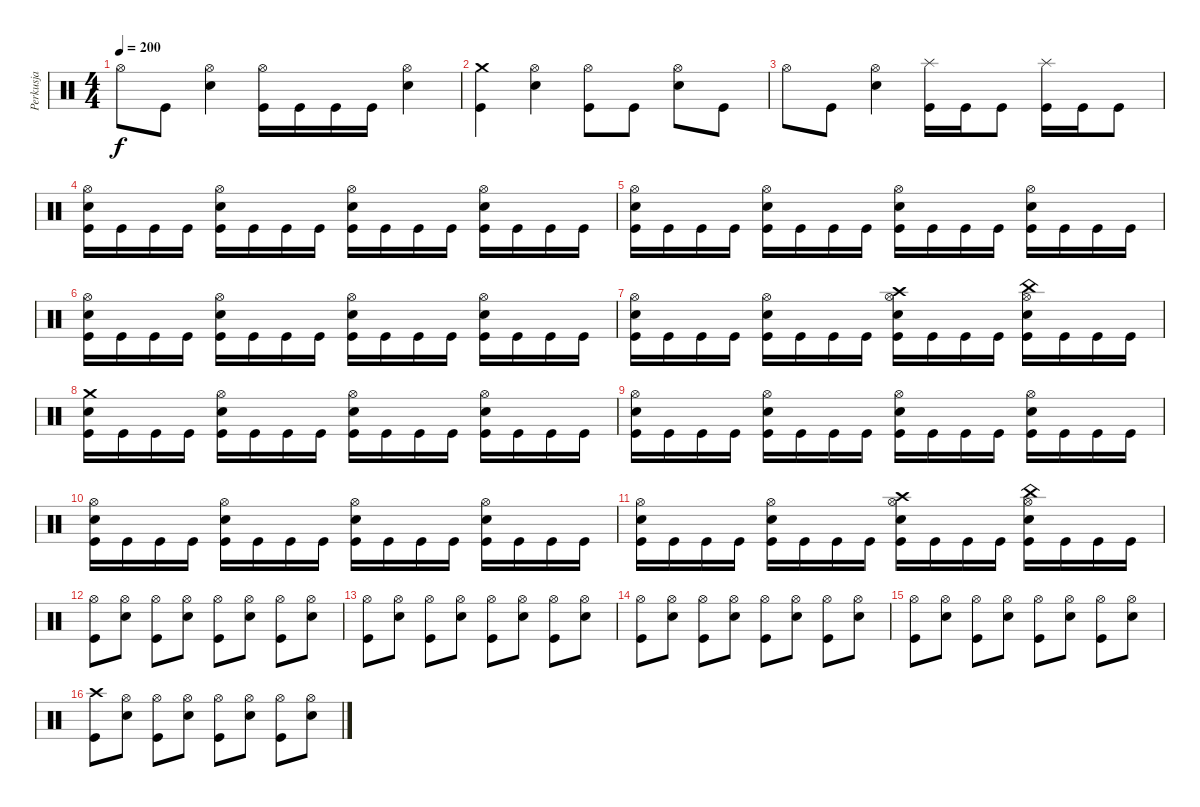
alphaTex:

\track ("Perkusja" "Perkusja") {instrument percussion}
\staff {score}
\articulation defaults
\ts (4 4)
\tempo 200
\clef neutral
\ks c "Hi-Hat (open)".8{dy f} "Kick (hit)".8
("Hi-Hat (open)" "Electric Snare (hit)").4 ("Hi-Hat (open)" "Kick (hit)").16 "Kick (hit)".16 "Kick (hit)".16 "Kick (hit)".16 ("Hi-Hat (open)" "Electric Snare (hit)").4 |
("Crash medium (hit)" "Kick (hit)").4 ("Hi-Hat (open)" "Electric Snare (hit)").4 ("Hi-Hat (open)" "Kick (hit)").8 "Kick (hit)".8 ("Hi-Hat (open)" "Electric Snare (hit)").8 "Kick (hit)".8 |
"Hi-Hat (open)".8 "Kick (hit)".8 ("Hi-Hat (open)" "Electric Snare (hit)").4 ("Splash (hit)" "Kick (hit)").16 "Kick (hit)".16 "Kick (hit)".8 ("Splash (hit)" "Kick (hit)").16 "Kick (hit)".16 "Kick (hit)".8 |
("Hi-Hat (open)" "Electric Snare (hit)" "Kick (hit)").16 "Kick (hit)".16 "Kick (hit)".16 "Kick (hit)".16 ("Hi-Hat (open)" "Electric Snare (hit)" "Kick (hit)").16 "Kick (hit)".16 "Kick (hit)".16 "Kick (hit)".16 ("Hi-Hat (open)" "Electric Snare (hit)" "Kick (hit)").16 "Kick (hit)".16 "Kick (hit)".16 "Kick (hit)".16 ("Hi-Hat (open)" "Electric Snare (hit)" "Kick (hit)").16 "Kick (hit)".16 "Kick (hit)".16 "Kick (hit)".16 |
("Hi-Hat (open)" "Electric Snare (hit)" "Kick (hit)").16 "Kick (hit)".16 "Kick (hit)".16 "Kick (hit)".16 ("Hi-Hat (open)" "Electric Snare (hit)" "Kick (hit)").16 "Kick (hit)".16 "Kick (hit)".16 "Kick (hit)".16 ("Hi-Hat (open)" "Electric Snare (hit)" "Kick (hit)").16 "Kick (hit)".16 "Kick (hit)".16 "Kick (hit)".16 ("Hi-Hat (open)" "Electric Snare (hit)" "Kick (hit)").16 "Kick (hit)".16 "Kick (hit)".16 "Kick (hit)".16 |
("Hi-Hat (open)" "Electric Snare (hit)" "Kick (hit)").16 "Kick (hit)".16 "Kick (hit)".16 "Kick (hit)".16 ("Hi-Hat (open)" "Electric Snare (hit)" "Kick (hit)").16 "Kick (hit)".16 "Kick (hit)".16 "Kick (hit)".16 ("Hi-Hat (open)" "Electric Snare (hit)" "Kick (hit)").16 "Kick (hit)".16 "Kick (hit)".16 "Kick (hit)".16 ("Hi-Hat (open)" "Electric Snare (hit)" "Kick (hit)").16 "Kick (hit)".16 "Kick (hit)".16 "Kick (hit)".16 |
("Hi-Hat (open)" "Electric Snare (hit)" "Kick (hit)").16 "Kick (hit)".16 "Kick (hit)".16 "Kick (hit)".16 ("Hi-Hat (open)" "Electric Snare (hit)" "Kick (hit)").16 "Kick (hit)".16 "Kick (hit)".16 "Kick (hit)".16 ("Crash high (hit)" "Hi-Hat (open)" "Electric Snare (hit)" "Kick (hit)").16 "Kick (hit)".16 "Kick (hit)".16 "Kick (hit)".16 ("China (hit)" "Hi-Hat (open)" "Electric Snare (hit)" "Kick (hit)").16 "Kick (hit)".16 "Kick (hit)".16 "Kick (hit)".16 |
("Crash medium (hit)" "Electric Snare (hit)" "Kick (hit)").16 "Kick (hit)".16 "Kick (hit)".16 "Kick (hit)".16 ("Hi-Hat (open)" "Electric Snare (hit)" "Kick (hit)").16 "Kick (hit)".16 "Kick (hit)".16 "Kick (hit)".16 ("Hi-Hat (open)" "Electric Snare (hit)" "Kick (hit)").16 "Kick (hit)".16 "Kick (hit)".16 "Kick (hit)".16 ("Hi-Hat (open)" "Electric Snare (hit)" "Kick (hit)").16 "Kick (hit)".16 "Kick (hit)".16 "Kick (hit)".16 |
("Hi-Hat (open)" "Electric Snare (hit)" "Kick (hit)").16 "Kick (hit)".16 "Kick (hit)".16 "Kick (hit)".16 ("Hi-Hat (open)" "Electric Snare (hit)" "Kick (hit)").16 "Kick (hit)".16 "Kick (hit)".16 "Kick (hit)".16 ("Hi-Hat (open)" "Electric Snare (hit)" "Kick (hit)").16 "Kick (hit)".16 "Kick (hit)".16 "Kick (hit)".16 ("Hi-Hat (open)" "Electric Snare (hit)" "Kick (hit)").16 "Kick (hit)".16 "Kick (hit)".16 "Kick (hit)".16 |
("Hi-Hat (open)" "Electric Snare (hit)" "Kick (hit)").16 "Kick (hit)".16 "Kick (hit)".16 "Kick (hit)".16 ("Hi-Hat (open)" "Electric Snare (hit)" "Kick (hit)").16 "Kick (hit)".16 "Kick (hit)".16 "Kick (hit)".16 ("Hi-Hat (open)" "Electric Snare (hit)" "Kick (hit)").16 "Kick (hit)".16 "Kick (hit)".16 "Kick (hit)".16 ("Hi-Hat (open)" "Electric Snare (hit)" "Kick (hit)").16 "Kick (hit)".16 "Kick (hit)".16 "Kick (hit)".16 |
("Hi-Hat (open)" "Electric Snare (hit)" "Kick (hit)").16 "Kick (hit)".16 "Kick (hit)".16 "Kick (hit)".16 ("Hi-Hat (open)" "Electric Snare (hit)" "Kick (hit)").16 "Kick (hit)".16 "Kick (hit)".16 "Kick (hit)".16 ("Crash high (hit)" "Hi-Hat (open)" "Electric Snare (hit)" "Kick (hit)").16 "Kick (hit)".16 "Kick (hit)".16 "Kick (hit)".16 ("China (hit)" "Hi-Hat (open)" "Electric Snare (hit)" "Kick (hit)").16 "Kick (hit)".16 "Kick (hit)".16 "Kick (hit)".16 |
("Hi-Hat (open)" "Kick (hit)").8 ("Hi-Hat (open)" "Electric Snare (hit)").8 ("Hi-Hat (open)" "Kick (hit)").8 ("Hi-Hat (open)" "Electric Snare (hit)").8 ("Hi-Hat (open)" "Kick (hit)").8 ("Hi-Hat (open)" "Electric Snare (hit)").8 ("Hi-Hat (open)" "Kick (hit)").8 ("Hi-Hat (open)" "Electric Snare (hit)").8 |
("Hi-Hat (open)" "Kick (hit)").8 ("Hi-Hat (open)" "Electric Snare (hit)").8 ("Hi-Hat (open)" "Kick (hit)").8 ("Hi-Hat (open)" "Electric Snare (hit)").8 ("Hi-Hat (open)" "Kick (hit)").8 ("Hi-Hat (open)" "Electric Snare (hit)").8 ("Hi-Hat (open)" "Kick (hit)").8 ("Hi-Hat (open)" "Electric Snare (hit)").8 |
("Hi-Hat (open)" "Kick (hit)").8 ("Hi-Hat (open)" "Electric Snare (hit)").8 ("Hi-Hat (open)" "Kick (hit)").8 ("Hi-Hat (open)" "Electric Snare (hit)").8 ("Hi-Hat (open)" "Kick (hit)").8 ("Hi-Hat (open)" "Electric Snare (hit)").8 ("Hi-Hat (open)" "Kick (hit)").8 ("Hi-Hat (open)" "Electric Snare (hit)").8 |
("Hi-Hat (open)" "Kick (hit)").8 ("Hi-Hat (open)" "Electric Snare (hit)").8 ("Hi-Hat (open)" "Kick (hit)").8 ("Hi-Hat (open)" "Electric Snare (hit)").8 ("Hi-Hat (open)" "Kick (hit)").8 ("Hi-Hat (open)" "Electric Snare (hit)").8 ("Hi-Hat (open)" "Kick (hit)").8 ("Hi-Hat (open)" "Electric Snare (hit)").8 |
("Crash high (hit)" "Kick (hit)").8 ("Hi-Hat (open)" "Electric Snare (hit)").8 ("Hi-Hat (open)" "Kick (hit)").8 ("Hi-Hat (open)" "Electric Snare (hit)").8 ("Hi-Hat (open)" "Kick (hit)").8 ("Hi-Hat (open)" "Electric Snare (hit)").8 ("Hi-Hat (open)" "Kick (hit)").8 ("Hi-Hat (open)" "Electric Snare (hit)").8
